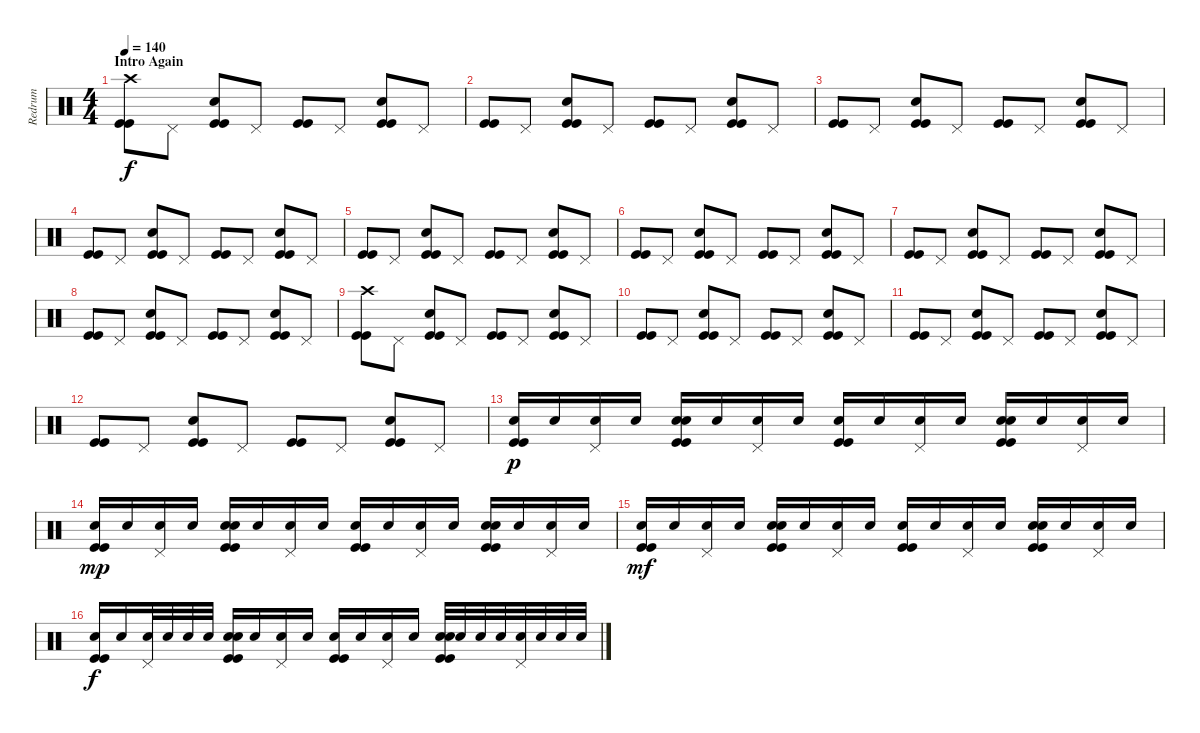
\track ("Redrum" "Redrum") {instrument percussion}
\staff {score}
\articulation defaults
\ts (4 4)
\section ("" "Intro Again")
\tempo 140
\clef neutral
\ks c
("Crash high (hit)" "Kick (hit)" "Kick (hit)").8{dy f} "Pedal Hi-Hat (hit)".8 ("Hand Clap (hit)" "Kick (hit)" "Kick (hit)").8 "Pedal Hi-Hat (hit)".8 ("Kick (hit)" "Kick (hit)").8 "Pedal Hi-Hat (hit)".8 ("Hand Clap (hit)" "Kick (hit)" "Kick (hit)").8 "Pedal Hi-Hat (hit)".8 |
("Kick (hit)" "Kick (hit)").8 "Pedal Hi-Hat (hit)".8 ("Hand Clap (hit)" "Kick (hit)" "Kick (hit)").8 "Pedal Hi-Hat (hit)".8 ("Kick (hit)" "Kick (hit)").8 "Pedal Hi-Hat (hit)".8 ("Hand Clap (hit)" "Kick (hit)" "Kick (hit)").8 "Pedal Hi-Hat (hit)".8 |
("Kick (hit)" "Kick (hit)").8 "Pedal Hi-Hat (hit)".8 ("Hand Clap (hit)" "Kick (hit)" "Kick (hit)").8 "Pedal Hi-Hat (hit)".8 ("Kick (hit)" "Kick (hit)").8 "Pedal Hi-Hat (hit)".8 ("Hand Clap (hit)" "Kick (hit)" "Kick (hit)").8 "Pedal Hi-Hat (hit)".8 |
("Kick (hit)" "Kick (hit)").8 "Pedal Hi-Hat (hit)".8 ("Hand Clap (hit)" "Kick (hit)" "Kick (hit)").8 "Pedal Hi-Hat (hit)".8 ("Kick (hit)" "Kick (hit)").8 "Pedal Hi-Hat (hit)".8 ("Hand Clap (hit)" "Kick (hit)" "Kick (hit)").8 "Pedal Hi-Hat (hit)".8 |
("Kick (hit)" "Kick (hit)").8 "Pedal Hi-Hat (hit)".8 ("Hand Clap (hit)" "Kick (hit)" "Kick (hit)").8 "Pedal Hi-Hat (hit)".8 ("Kick (hit)" "Kick (hit)").8 "Pedal Hi-Hat (hit)".8 ("Hand Clap (hit)" "Kick (hit)" "Kick (hit)").8 "Pedal Hi-Hat (hit)".8 |
("Kick (hit)" "Kick (hit)").8 "Pedal Hi-Hat (hit)".8 ("Hand Clap (hit)" "Kick (hit)" "Kick (hit)").8 "Pedal Hi-Hat (hit)".8 ("Kick (hit)" "Kick (hit)").8 "Pedal Hi-Hat (hit)".8 ("Hand Clap (hit)" "Kick (hit)" "Kick (hit)").8 "Pedal Hi-Hat (hit)".8 |
("Kick (hit)" "Kick (hit)").8 "Pedal Hi-Hat (hit)".8 ("Hand Clap (hit)" "Kick (hit)" "Kick (hit)").8 "Pedal Hi-Hat (hit)".8 ("Kick (hit)" "Kick (hit)").8 "Pedal Hi-Hat (hit)".8 ("Hand Clap (hit)" "Kick (hit)" "Kick (hit)").8 "Pedal Hi-Hat (hit)".8 |
("Kick (hit)" "Kick (hit)").8 "Pedal Hi-Hat (hit)".8 ("Hand Clap (hit)" "Kick (hit)" "Kick (hit)").8 "Pedal Hi-Hat (hit)".8 ("Kick (hit)" "Kick (hit)").8 "Pedal Hi-Hat (hit)".8 ("Hand Clap (hit)" "Kick (hit)" "Kick (hit)").8 "Pedal Hi-Hat (hit)".8 |
("Crash high (hit)" "Kick (hit)" "Kick (hit)").8 "Pedal Hi-Hat (hit)".8 ("Hand Clap (hit)" "Kick (hit)" "Kick (hit)").8 "Pedal Hi-Hat (hit)".8 ("Kick (hit)" "Kick (hit)").8 "Pedal Hi-Hat (hit)".8 ("Hand Clap (hit)" "Kick (hit)" "Kick (hit)").8 "Pedal Hi-Hat (hit)".8 |
("Kick (hit)" "Kick (hit)").8 "Pedal Hi-Hat (hit)".8 ("Hand Clap (hit)" "Kick (hit)" "Kick (hit)").8 "Pedal Hi-Hat (hit)".8 ("Kick (hit)" "Kick (hit)").8 "Pedal Hi-Hat (hit)".8 ("Hand Clap (hit)" "Kick (hit)" "Kick (hit)").8 "Pedal Hi-Hat (hit)".8 |
("Kick (hit)" "Kick (hit)").8 "Pedal Hi-Hat (hit)".8 ("Hand Clap (hit)" "Kick (hit)" "Kick (hit)").8 "Pedal Hi-Hat (hit)".8 ("Kick (hit)" "Kick (hit)").8 "Pedal Hi-Hat (hit)".8 ("Hand Clap (hit)" "Kick (hit)" "Kick (hit)").8 "Pedal Hi-Hat (hit)".8 |
("Kick (hit)" "Kick (hit)").8 "Pedal Hi-Hat (hit)".8 ("Hand Clap (hit)" "Kick (hit)" "Kick (hit)").8 "Pedal Hi-Hat (hit)".8 ("Kick (hit)" "Kick (hit)").8 "Pedal Hi-Hat (hit)".8 ("Hand Clap (hit)" "Kick (hit)" "Kick (hit)").8 "Pedal Hi-Hat (hit)".8 |
("Snare (hit) 2" "Kick (hit)" "Kick (hit)").16{dy p} "Snare (hit) 2".16 ("Snare (hit) 2" "Pedal Hi-Hat (hit)").16 "Snare (hit) 2".16 ("Snare (hit) 2" "Hand Clap (hit)" "Kick (hit)" "Kick (hit)").16 "Snare (hit) 2".16 ("Snare (hit) 2" "Pedal Hi-Hat (hit)").16 "Snare (hit) 2".16 ("Snare (hit) 2" "Kick (hit)" "Kick (hit)").16 "Snare (hit) 2".16 ("Snare (hit) 2" "Pedal Hi-Hat (hit)").16 "Snare (hit) 2".16 ("Snare (hit) 2" "Hand Clap (hit)" "Kick (hit)" "Kick (hit)").16 "Snare (hit) 2".16 ("Snare (hit) 2" "Pedal Hi-Hat (hit)").16 "Snare (hit) 2".16 |
("Snare (hit) 2" "Kick (hit)" "Kick (hit)").16{dy mp} "Snare (hit) 2".16 ("Snare (hit) 2" "Pedal Hi-Hat (hit)").16 "Snare (hit) 2".16 ("Snare (hit) 2" "Hand Clap (hit)" "Kick (hit)" "Kick (hit)").16 "Snare (hit) 2".16 ("Snare (hit) 2" "Pedal Hi-Hat (hit)").16 "Snare (hit) 2".16 ("Snare (hit) 2" "Kick (hit)" "Kick (hit)").16 "Snare (hit) 2".16 ("Snare (hit) 2" "Pedal Hi-Hat (hit)").16 "Snare (hit) 2".16 ("Snare (hit) 2" "Hand Clap (hit)" "Kick (hit)" "Kick (hit)").16 "Snare (hit) 2".16 ("Snare (hit) 2" "Pedal Hi-Hat (hit)").16 "Snare (hit) 2".16 |
("Snare (hit) 2" "Kick (hit)" "Kick (hit)").16{dy mf} "Snare (hit) 2".16 ("Snare (hit) 2" "Pedal Hi-Hat (hit)").16 "Snare (hit) 2".16 ("Snare (hit) 2" "Hand Clap (hit)" "Kick (hit)" "Kick (hit)").16 "Snare (hit) 2".16 ("Snare (hit) 2" "Pedal Hi-Hat (hit)").16 "Snare (hit) 2".16 ("Snare (hit) 2" "Kick (hit)" "Kick (hit)").16 "Snare (hit) 2".16 ("Snare (hit) 2" "Pedal Hi-Hat (hit)").16 "Snare (hit) 2".16 ("Snare (hit) 2" "Hand Clap (hit)" "Kick (hit)" "Kick (hit)").16 "Snare (hit) 2".16 ("Snare (hit) 2" "Pedal Hi-Hat (hit)").16 "Snare (hit) 2".16 |
("Snare (hit) 2" "Kick (hit)" "Kick (hit)").16{dy f} "Snare (hit) 2".16 ("Snare (hit) 2" "Pedal Hi-Hat (hit)").32 "Snare (hit) 2".32 "Snare (hit) 2".32 "Snare (hit) 2".32 ("Snare (hit) 2" "Hand Clap (hit)" "Kick (hit)" "Kick (hit)").16 "Snare (hit) 2".16 ("Snare (hit) 2" "Pedal Hi-Hat (hit)").16 "Snare (hit) 2".16 ("Snare (hit) 2" "Kick (hit)" "Kick (hit)").16 "Snare (hit) 2".16 ("Snare (hit) 2" "Pedal Hi-Hat (hit)").16 "Snare (hit) 2".16 ("Snare (hit) 2" "Hand Clap (hit)" "Kick (hit)" "Kick (hit)").32 "Snare (hit) 2".32 "Snare (hit) 2".32 "Snare (hit) 2".32 ("Snare (hit) 2" "Pedal Hi-Hat (hit)").32 "Snare (hit) 2".32 "Snare (hit) 2".32 "Snare (hit) 2".32
